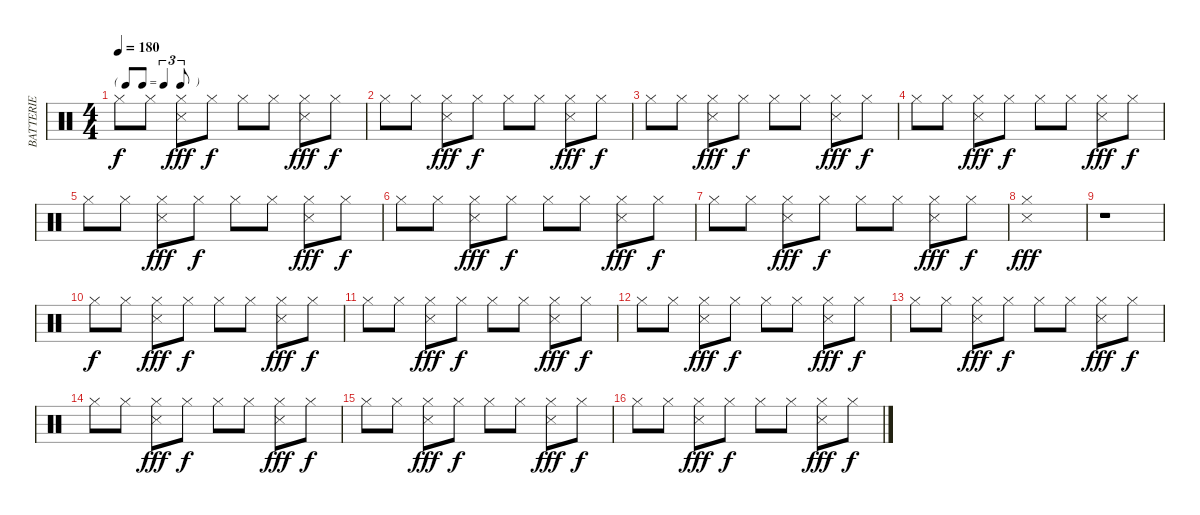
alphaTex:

\track ("BATTERIE" "BATTERIE") {instrument percussion}
\staff {score}
\articulation defaults
\ts (4 4)
\tf triplet8th
\tempo 180
\clef neutral
\ks c "Hi-Hat (closed)".8{dy f} "Hi-Hat (closed)".8
("Hi-Hat (closed)" "Snare (side stick) 3").8{dy fff} "Hi-Hat (closed)".8{dy f} "Hi-Hat (closed)".8 "Hi-Hat (closed)".8 ("Hi-Hat (closed)" "Snare (side stick) 3").8{dy fff} "Hi-Hat (closed)".8{dy f} |
"Hi-Hat (closed)".8 "Hi-Hat (closed)".8 ("Hi-Hat (closed)" "Snare (side stick) 3").8{dy fff} "Hi-Hat (closed)".8{dy f} "Hi-Hat (closed)".8 "Hi-Hat (closed)".8 ("Hi-Hat (closed)" "Snare (side stick) 3").8{dy fff} "Hi-Hat (closed)".8{dy f} |
"Hi-Hat (closed)".8 "Hi-Hat (closed)".8 ("Hi-Hat (closed)" "Snare (side stick) 3").8{dy fff} "Hi-Hat (closed)".8{dy f} "Hi-Hat (closed)".8 "Hi-Hat (closed)".8 ("Hi-Hat (closed)" "Snare (side stick) 3").8{dy fff} "Hi-Hat (closed)".8{dy f} |
"Hi-Hat (closed)".8 "Hi-Hat (closed)".8 ("Hi-Hat (closed)" "Snare (side stick) 3").8{dy fff} "Hi-Hat (closed)".8{dy f} "Hi-Hat (closed)".8 "Hi-Hat (closed)".8 ("Hi-Hat (closed)" "Snare (side stick) 3").8{dy fff} "Hi-Hat (closed)".8{dy f} |
"Hi-Hat (closed)".8 "Hi-Hat (closed)".8 ("Hi-Hat (closed)" "Snare (side stick) 3").8{dy fff} "Hi-Hat (closed)".8{dy f} "Hi-Hat (closed)".8 "Hi-Hat (closed)".8 ("Hi-Hat (closed)" "Snare (side stick) 3").8{dy fff} "Hi-Hat (closed)".8{dy f} |
"Hi-Hat (closed)".8 "Hi-Hat (closed)".8 ("Hi-Hat (closed)" "Snare (side stick) 3").8{dy fff} "Hi-Hat (closed)".8{dy f} "Hi-Hat (closed)".8 "Hi-Hat (closed)".8 ("Hi-Hat (closed)" "Snare (side stick) 3").8{dy fff} "Hi-Hat (closed)".8{dy f} |
"Hi-Hat (closed)".8 "Hi-Hat (closed)".8 ("Hi-Hat (closed)" "Snare (side stick) 3").8{dy fff} "Hi-Hat (closed)".8{dy f} "Hi-Hat (closed)".8 "Hi-Hat (closed)".8 ("Hi-Hat (closed)" "Snare (side stick) 3").8{dy fff} "Hi-Hat (closed)".8{dy f} |
("Hi-Hat (closed)" "Snare (side stick) 3").1{dy fff} |
r.1 |
"Hi-Hat (closed)".8{dy f} "Hi-Hat (closed)".8 ("Hi-Hat (closed)" "Snare (side stick) 3").8{dy fff} "Hi-Hat (closed)".8{dy f} "Hi-Hat (closed)".8 "Hi-Hat (closed)".8 ("Hi-Hat (closed)" "Snare (side stick) 3").8{dy fff} "Hi-Hat (closed)".8{dy f} |
"Hi-Hat (closed)".8 "Hi-Hat (closed)".8 ("Hi-Hat (closed)" "Snare (side stick) 3").8{dy fff} "Hi-Hat (closed)".8{dy f} "Hi-Hat (closed)".8 "Hi-Hat (closed)".8 ("Hi-Hat (closed)" "Snare (side stick) 3").8{dy fff} "Hi-Hat (closed)".8{dy f} |
"Hi-Hat (closed)".8 "Hi-Hat (closed)".8 ("Hi-Hat (closed)" "Snare (side stick) 3").8{dy fff} "Hi-Hat (closed)".8{dy f} "Hi-Hat (closed)".8 "Hi-Hat (closed)".8 ("Hi-Hat (closed)" "Snare (side stick) 3").8{dy fff} "Hi-Hat (closed)".8{dy f} |
"Hi-Hat (closed)".8 "Hi-Hat (closed)".8 ("Hi-Hat (closed)" "Snare (side stick) 3").8{dy fff} "Hi-Hat (closed)".8{dy f} "Hi-Hat (closed)".8 "Hi-Hat (closed)".8 ("Hi-Hat (closed)" "Snare (side stick) 3").8{dy fff} "Hi-Hat (closed)".8{dy f} |
"Hi-Hat (closed)".8 "Hi-Hat (closed)".8 ("Hi-Hat (closed)" "Snare (side stick) 3").8{dy fff} "Hi-Hat (closed)".8{dy f} "Hi-Hat (closed)".8 "Hi-Hat (closed)".8 ("Hi-Hat (closed)" "Snare (side stick) 3").8{dy fff} "Hi-Hat (closed)".8{dy f} |
"Hi-Hat (closed)".8 "Hi-Hat (closed)".8 ("Hi-Hat (closed)" "Snare (side stick) 3").8{dy fff} "Hi-Hat (closed)".8{dy f} "Hi-Hat (closed)".8 "Hi-Hat (closed)".8 ("Hi-Hat (closed)" "Snare (side stick) 3").8{dy fff} "Hi-Hat (closed)".8{dy f} |
"Hi-Hat (closed)".8 "Hi-Hat (closed)".8 ("Hi-Hat (closed)" "Snare (side stick) 3").8{dy fff} "Hi-Hat (closed)".8{dy f} "Hi-Hat (closed)".8 "Hi-Hat (closed)".8 ("Hi-Hat (closed)" "Snare (side stick) 3").8{dy fff} "Hi-Hat (closed)".8{dy f}
